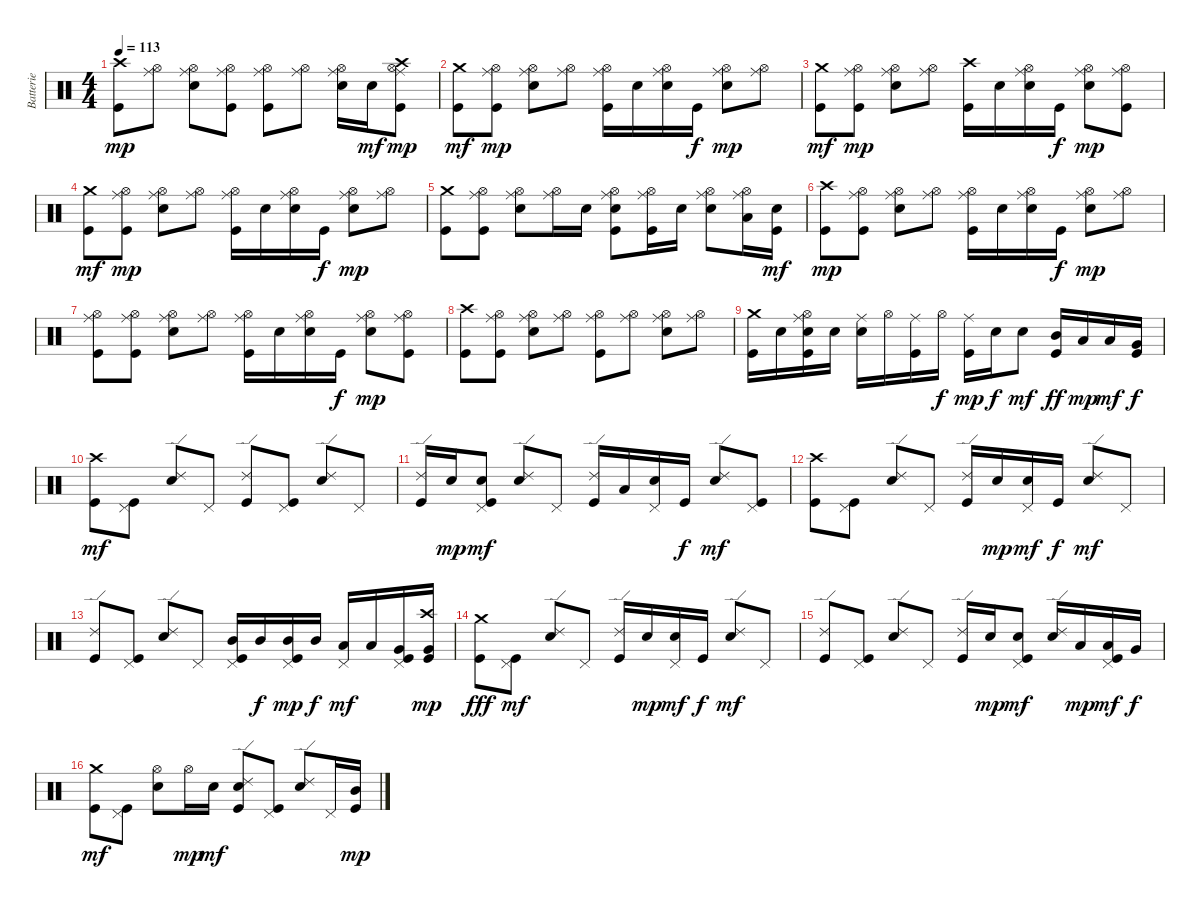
\track ("Batterie" "Batterie") {instrument percussion}
\staff {score}
\articulation defaults
\ts (4 4)
\tempo 113
\clef neutral
\ks c
("Kick (hit)" "Crash high (hit)").8{dy mp} ("Hi-Hat (open)" "Ride (middle)").8 ("Electric Snare (hit)" "Hi-Hat (open)" "Ride (middle)").8 ("Kick (hit)" "Hi-Hat (open)" "Ride (middle)").8 ("Kick (hit)" "Hi-Hat (open)" "Ride (middle)").8 ("Hi-Hat (open)" "Ride (middle)").8 ("Electric Snare (hit)" "Hi-Hat (open)" "Ride (middle)").16 "Electric Snare (hit)".16{dy mf} ("Kick (hit)" "Hi-Hat (open)" "Crash high (hit)" "Ride (middle)").8{dy mp} |
("Kick (hit)" "Crash medium (hit)").8{dy mf} ("Kick (hit)" "Hi-Hat (open)" "Ride (middle)").8{dy mp} ("Electric Snare (hit)" "Hi-Hat (open)" "Ride (middle)").8 ("Hi-Hat (open)" "Ride (middle)").8 ("Kick (hit)" "Hi-Hat (open)" "Ride (middle)").16 "Electric Snare (hit)".16 ("Electric Snare (hit)" "Hi-Hat (open)" "Ride (middle)").16 "Kick (hit)".16{dy f} ("Electric Snare (hit)" "Hi-Hat (open)" "Ride (middle)").8{dy mp} ("Hi-Hat (open)" "Ride (middle)").8 |
("Kick (hit)" "Crash medium (hit)").8{dy mf} ("Kick (hit)" "Hi-Hat (open)" "Ride (middle)").8{dy mp} ("Electric Snare (hit)" "Hi-Hat (open)" "Ride (middle)").8 ("Hi-Hat (open)" "Ride (middle)").8 ("Kick (hit)" "Crash high (hit)").16 "Electric Snare (hit)".16 ("Electric Snare (hit)" "Hi-Hat (open)" "Ride (middle)").16 "Kick (hit)".16{dy f} ("Electric Snare (hit)" "Hi-Hat (open)" "Ride (middle)").8{dy mp} ("Kick (hit)" "Hi-Hat (open)" "Ride (middle)").8 |
("Kick (hit)" "Crash medium (hit)").8{dy mf} ("Kick (hit)" "Hi-Hat (open)" "Ride (middle)").8{dy mp} ("Electric Snare (hit)" "Hi-Hat (open)" "Ride (middle)").8 ("Hi-Hat (open)" "Ride (middle)").8 ("Kick (hit)" "Hi-Hat (open)" "Ride (middle)").16 "Electric Snare (hit)".16 ("Electric Snare (hit)" "Hi-Hat (open)" "Ride (middle)").16 "Kick (hit)".16{dy f} ("Electric Snare (hit)" "Hi-Hat (open)" "Ride (middle)").8{dy mp} ("Hi-Hat (open)" "Ride (middle)").8 |
("Kick (hit)" "Crash medium (hit)").8 ("Kick (hit)" "Hi-Hat (open)" "Ride (middle)").8 ("Electric Snare (hit)" "Hi-Hat (open)" "Ride (middle)").8 ("Hi-Hat (open)" "Ride (middle)").16 "Electric Snare (hit)".16 ("Kick (hit)" "Electric Snare (hit)" "Hi-Hat (open)" "Ride (middle)").8 ("Kick (hit)" "Hi-Hat (open)" "Ride (middle)").16 "Electric Snare (hit)".16 ("Electric Snare (hit)" "Hi-Hat (open)" "Ride (middle)").8 ("Hi-Hat (open)" "Ride (middle)" "Low Tom (hit)").16 ("Kick (hit)" "Electric Snare (hit)").16{dy mf} |
("Kick (hit)" "Crash high (hit)").8{dy mp} ("Kick (hit)" "Hi-Hat (open)" "Ride (middle)").8 ("Electric Snare (hit)" "Hi-Hat (open)" "Ride (middle)").8 ("Hi-Hat (open)" "Ride (middle)").8 ("Kick (hit)" "Hi-Hat (open)" "Ride (middle)").16 "Electric Snare (hit)".16 ("Electric Snare (hit)" "Hi-Hat (open)" "Ride (middle)").16 "Kick (hit)".16{dy f} ("Electric Snare (hit)" "Hi-Hat (open)" "Ride (middle)").8{dy mp} ("Hi-Hat (open)" "Ride (middle)").8 |
("Kick (hit)" "Hi-Hat (open)" "Ride (middle)").8 ("Kick (hit)" "Hi-Hat (open)" "Ride (middle)").8 ("Electric Snare (hit)" "Hi-Hat (open)" "Ride (middle)").8 ("Hi-Hat (open)" "Ride (middle)").8 ("Kick (hit)" "Hi-Hat (open)" "Ride (middle)").16 "Electric Snare (hit)".16 ("Electric Snare (hit)" "Hi-Hat (open)" "Ride (middle)").16 "Kick (hit)".16{dy f} ("Electric Snare (hit)" "Hi-Hat (open)" "Ride (middle)").8{dy mp} ("Kick (hit)" "Hi-Hat (open)" "Ride (middle)").8 |
("Kick (hit)" "Crash high (hit)").8 ("Kick (hit)" "Hi-Hat (open)" "Ride (middle)").8 ("Electric Snare (hit)" "Hi-Hat (open)" "Ride (middle)").8 ("Hi-Hat (open)" "Ride (middle)").8 ("Kick (hit)" "Hi-Hat (open)" "Ride (middle)").8 ("Hi-Hat (open)" "Ride (middle)").8 ("Electric Snare (hit)" "Hi-Hat (open)" "Ride (middle)").8 ("Hi-Hat (open)" "Ride (middle)").8 |
("Kick (hit)" "Crash medium (hit)").16 "Electric Snare (hit)".16 ("Kick (hit)" "Electric Snare (hit)" "Hi-Hat (open)" "Ride (middle)").16 "Electric Snare (hit)".16 ("Electric Snare (hit)" "Ride (middle)").16 "Hi-Hat (open)".16 ("Kick (hit)" "Ride (middle)").16 "Hi-Hat (open)".16{dy f} ("Kick (hit)" "Ride (middle)").16{dy mp} "Electric Snare (hit)".16{dy f} "Electric Snare (hit)".8{dy mf} ("Kick (hit)" "Mid Tom (hit)").16{dy ff} "Low Tom (hit)".16{dy mp} "Low Tom (hit)".16{dy mf} ("Kick (hit)" "Very Low Tom (hit)").16{dy f} |
("Kick (hit)" "Crash high (hit)").8{dy mf} ("Kick (hit)" "Pedal Hi-Hat (hit)").8 ("Electric Snare (hit)" "Ride (edge) 2").8 "Pedal Hi-Hat (hit)".8 ("Kick (hit)" "Ride (edge) 2").8 ("Kick (hit)" "Pedal Hi-Hat (hit)").8 ("Electric Snare (hit)" "Ride (edge) 2").8 "Pedal Hi-Hat (hit)".8 |
("Kick (hit)" "Ride (edge) 2").16 "Electric Snare (hit)".16{dy mp} ("Kick (hit)" "Electric Snare (hit)" "Pedal Hi-Hat (hit)").8{dy mf} ("Electric Snare (hit)" "Ride (edge) 2").8 "Pedal Hi-Hat (hit)".8 ("Kick (hit)" "Ride (edge) 2").16 "Low Tom (hit)".16 ("Electric Snare (hit)" "Pedal Hi-Hat (hit)").16 "Kick (hit)".16{dy f} ("Electric Snare (hit)" "Ride (edge) 2").8{dy mf} ("Kick (hit)" "Pedal Hi-Hat (hit)").8 |
("Kick (hit)" "Crash high (hit)").8 ("Kick (hit)" "Pedal Hi-Hat (hit)").8 ("Electric Snare (hit)" "Ride (edge) 2").8 "Pedal Hi-Hat (hit)".8 ("Kick (hit)" "Ride (edge) 2").16 "Electric Snare (hit)".16{dy mp} ("Electric Snare (hit)" "Pedal Hi-Hat (hit)").16{dy mf} "Kick (hit)".16{dy f} ("Electric Snare (hit)" "Ride (edge) 2").8{dy mf} "Pedal Hi-Hat (hit)".8 |
("Kick (hit)" "Ride (edge) 2").8 ("Kick (hit)" "Pedal Hi-Hat (hit)").8 ("Electric Snare (hit)" "Ride (edge) 2").8 "Pedal Hi-Hat (hit)".8 ("Kick (hit)" "Pedal Hi-Hat (hit)" "Mid Tom (hit)").16 "Mid Tom (hit)".16{dy f} ("Kick (hit)" "Pedal Hi-Hat (hit)" "Mid Tom (hit)").16{dy mp} "Mid Tom (hit)".16{dy f} ("Pedal Hi-Hat (hit)" "Low Tom (hit)").16{dy mf} "Low Tom (hit)".16 ("Kick (hit)" "Pedal Hi-Hat (hit)" "Very Low Tom (hit)").16 ("Kick (hit)" "Crash high (hit)" "Very Low Tom (hit)").16{dy mp} |
("Kick (hit)" "Crash medium (hit)").8{dy fff} ("Kick (hit)" "Pedal Hi-Hat (hit)").8{dy mf} ("Electric Snare (hit)" "Ride (edge) 2").8 "Pedal Hi-Hat (hit)".8 ("Kick (hit)" "Ride (edge) 2").16 "Electric Snare (hit)".16{dy mp} ("Electric Snare (hit)" "Pedal Hi-Hat (hit)").16{dy mf} "Kick (hit)".16{dy f} ("Electric Snare (hit)" "Ride (edge) 2").8{dy mf} "Pedal Hi-Hat (hit)".8 |
("Kick (hit)" "Ride (edge) 2").8 ("Kick (hit)" "Pedal Hi-Hat (hit)").8 ("Electric Snare (hit)" "Ride (edge) 2").8 "Pedal Hi-Hat (hit)".8 ("Kick (hit)" "Ride (edge) 2").16 "Electric Snare (hit)".16{dy mp} ("Kick (hit)" "Electric Snare (hit)" "Pedal Hi-Hat (hit)").8{dy mf} ("Electric Snare (hit)" "Ride (edge) 2").16 "Low Tom (hit)".16{dy mp} ("Kick (hit)" "Pedal Hi-Hat (hit)" "Low Tom (hit)").16{dy mf} "Very Low Tom (hit)".16{dy f} |
("Kick (hit)" "Crash medium (hit)").8{dy mf} ("Kick (hit)" "Pedal Hi-Hat (hit)").8 ("Electric Snare (hit)" "Hi-Hat (open)").8 "Hi-Hat (open)".16{dy mp} "Electric Snare (hit)".16{dy mf} ("Kick (hit)" "Electric Snare (hit)" "Ride (edge) 2").8 ("Kick (hit)" "Pedal Hi-Hat (hit)").8 ("Electric Snare (hit)" "Ride (edge) 2").8 "Pedal Hi-Hat (hit)".16 ("Kick (hit)" "Mid Tom (hit)").16{dy mp}
